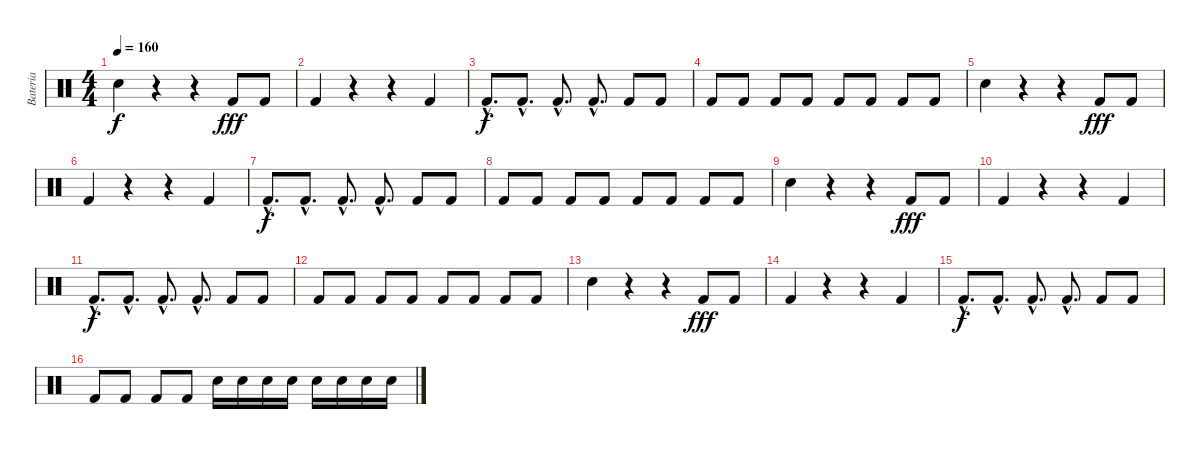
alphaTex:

\track ("Bateria" "Bateria") {instrument percussion}
\staff {score}
\articulation defaults
\ts (4 4)
\tempo 160
\clef neutral
\ks c "Snare (hit) 2".4{dy f}
r.4 r.4 "Kick (hit) 2".8{dy fff} "Kick (hit) 2".8 |
"Kick (hit) 2".4 r.4 r.4 "Kick (hit) 2".4 |
"Kick (hit) 2"{hac}.8{d dy f} "Kick (hit) 2"{hac}.8{d} "Kick (hit) 2"{hac}.8{d} "Kick (hit) 2"{hac}.8{d} "Kick (hit) 2".8 "Kick (hit) 2".8 |
"Kick (hit) 2".8 "Kick (hit) 2".8 "Kick (hit) 2".8 "Kick (hit) 2".8 "Kick (hit) 2".8 "Kick (hit) 2".8 "Kick (hit) 2".8 "Kick (hit) 2".8 |
"Snare (hit) 2".4 r.4 r.4 "Kick (hit) 2".8{dy fff} "Kick (hit) 2".8 |
"Kick (hit) 2".4 r.4 r.4 "Kick (hit) 2".4 |
"Kick (hit) 2"{hac}.8{d dy f} "Kick (hit) 2"{hac}.8{d} "Kick (hit) 2"{hac}.8{d} "Kick (hit) 2"{hac}.8{d} "Kick (hit) 2".8 "Kick (hit) 2".8 |
"Kick (hit) 2".8 "Kick (hit) 2".8 "Kick (hit) 2".8 "Kick (hit) 2".8 "Kick (hit) 2".8 "Kick (hit) 2".8 "Kick (hit) 2".8 "Kick (hit) 2".8 |
"Snare (hit) 2".4 r.4 r.4 "Kick (hit) 2".8{dy fff} "Kick (hit) 2".8 |
"Kick (hit) 2".4 r.4 r.4 "Kick (hit) 2".4 |
"Kick (hit) 2"{hac}.8{d dy f} "Kick (hit) 2"{hac}.8{d} "Kick (hit) 2"{hac}.8{d} "Kick (hit) 2"{hac}.8{d} "Kick (hit) 2".8 "Kick (hit) 2".8 |
"Kick (hit) 2".8 "Kick (hit) 2".8 "Kick (hit) 2".8 "Kick (hit) 2".8 "Kick (hit) 2".8 "Kick (hit) 2".8 "Kick (hit) 2".8 "Kick (hit) 2".8 |
"Snare (hit) 2".4 r.4 r.4 "Kick (hit) 2".8{dy fff} "Kick (hit) 2".8 |
"Kick (hit) 2".4 r.4 r.4 "Kick (hit) 2".4 |
"Kick (hit) 2"{hac}.8{d dy f} "Kick (hit) 2"{hac}.8{d} "Kick (hit) 2"{hac}.8{d} "Kick (hit) 2"{hac}.8{d} "Kick (hit) 2".8 "Kick (hit) 2".8 |
"Kick (hit) 2".8 "Kick (hit) 2".8 "Kick (hit) 2".8 "Kick (hit) 2".8 "Electric Snare (hit)".16 "Electric Snare (hit)".16 "Electric Snare (hit)".16 "Electric Snare (hit)".16 "Electric Snare (hit)".16 "Electric Snare (hit)".16 "Electric Snare (hit)".16 "Electric Snare (hit)".16
